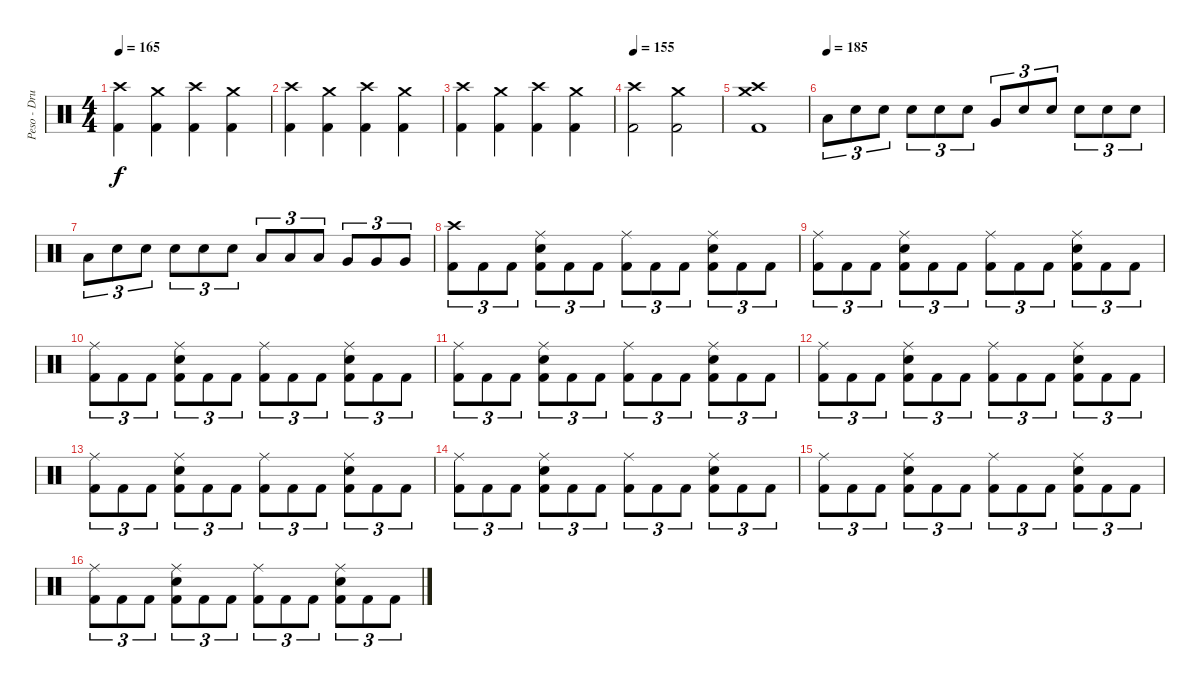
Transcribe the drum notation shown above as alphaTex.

\track ("Peso - Drums" "Peso - Dru") {instrument percussion}
\staff {score}
\articulation defaults
\ts (4 4)
\tempo 165
\clef neutral
\ks c
("Crash high (hit)" "Kick (hit) 2").4{dy f} ("Crash medium (hit)" "Kick (hit) 2").4 ("Crash high (hit)" "Kick (hit) 2").4 ("Crash medium (hit)" "Kick (hit) 2").4 |
("Crash high (hit)" "Kick (hit) 2").4 ("Crash medium (hit)" "Kick (hit) 2").4 ("Crash high (hit)" "Kick (hit) 2").4 ("Crash medium (hit)" "Kick (hit) 2").4 |
("Crash high (hit)" "Kick (hit) 2").4 ("Crash medium (hit)" "Kick (hit) 2").4 ("Crash high (hit)" "Kick (hit) 2").4 ("Crash medium (hit)" "Kick (hit) 2").4 |
\tempo 155
("Crash high (hit)" "Kick (hit) 2").2 ("Crash medium (hit)" "Kick (hit) 2").2 |
("Crash medium (hit)" "Crash high (hit)" "Kick (hit) 2").1 |
\tempo (185)
"Low Tom (hit)".8{tu (3 2)} "Electric Snare (hit)".8{tu (3 2)} "Electric Snare (hit)".8{tu (3 2)} "Electric Snare (hit)".8{tu (3 2)} "Electric Snare (hit)".8{tu (3 2)} "Electric Snare (hit)".8{tu (3 2)} "Very Low Tom (hit)".8{tu (3 2)} "Electric Snare (hit)".8{tu (3 2)} "Electric Snare (hit)".8{tu (3 2)} "Electric Snare (hit)".8{tu (3 2)} "Electric Snare (hit)".8{tu (3 2)} "Electric Snare (hit)".8{tu (3 2)} |
"Low Tom (hit)".8{tu (3 2)} "Electric Snare (hit)".8{tu (3 2)} "Electric Snare (hit)".8{tu (3 2)} "Electric Snare (hit)".8{tu (3 2)} "Electric Snare (hit)".8{tu (3 2)} "Electric Snare (hit)".8{tu (3 2)} "Low Tom (hit)".8{tu (3 2)} "Low Tom (hit)".8{tu (3 2)} "Low Tom (hit)".8{tu (3 2)} "Very Low Tom (hit)".8{tu (3 2)} "Very Low Tom (hit)".8{tu (3 2)} "Very Low Tom (hit)".8{tu (3 2)} |
("Crash high (hit)" "Kick (hit) 2").8{tu (3 2)} "Kick (hit) 2".8{tu (3 2)} "Kick (hit) 2".8{tu (3 2)} ("Ride (middle)" "Electric Snare (hit)" "Kick (hit) 2").8{tu (3 2)} "Kick (hit) 2".8{tu (3 2)} "Kick (hit) 2".8{tu (3 2)} ("Ride (middle)" "Kick (hit) 2").8{tu (3 2)} "Kick (hit) 2".8{tu (3 2)} "Kick (hit) 2".8{tu (3 2)} ("Ride (middle)" "Electric Snare (hit)" "Kick (hit) 2").8{tu (3 2)} "Kick (hit) 2".8{tu (3 2)} "Kick (hit) 2".8{tu (3 2)} |
("Ride (middle)" "Kick (hit) 2").8{tu (3 2)} "Kick (hit) 2".8{tu (3 2)} "Kick (hit) 2".8{tu (3 2)} ("Ride (middle)" "Electric Snare (hit)" "Kick (hit) 2").8{tu (3 2)} "Kick (hit) 2".8{tu (3 2)} "Kick (hit) 2".8{tu (3 2)} ("Ride (middle)" "Kick (hit) 2").8{tu (3 2)} "Kick (hit) 2".8{tu (3 2)} "Kick (hit) 2".8{tu (3 2)} ("Ride (middle)" "Electric Snare (hit)" "Kick (hit) 2").8{tu (3 2)} "Kick (hit) 2".8{tu (3 2)} "Kick (hit) 2".8{tu (3 2)} |
("Ride (middle)" "Kick (hit) 2").8{tu (3 2)} "Kick (hit) 2".8{tu (3 2)} "Kick (hit) 2".8{tu (3 2)} ("Ride (middle)" "Electric Snare (hit)" "Kick (hit) 2").8{tu (3 2)} "Kick (hit) 2".8{tu (3 2)} "Kick (hit) 2".8{tu (3 2)} ("Ride (middle)" "Kick (hit) 2").8{tu (3 2)} "Kick (hit) 2".8{tu (3 2)} "Kick (hit) 2".8{tu (3 2)} ("Ride (middle)" "Electric Snare (hit)" "Kick (hit) 2").8{tu (3 2)} "Kick (hit) 2".8{tu (3 2)} "Kick (hit) 2".8{tu (3 2)} |
("Ride (middle)" "Kick (hit) 2").8{tu (3 2)} "Kick (hit) 2".8{tu (3 2)} "Kick (hit) 2".8{tu (3 2)} ("Ride (middle)" "Electric Snare (hit)" "Kick (hit) 2").8{tu (3 2)} "Kick (hit) 2".8{tu (3 2)} "Kick (hit) 2".8{tu (3 2)} ("Ride (middle)" "Kick (hit) 2").8{tu (3 2)} "Kick (hit) 2".8{tu (3 2)} "Kick (hit) 2".8{tu (3 2)} ("Ride (middle)" "Electric Snare (hit)" "Kick (hit) 2").8{tu (3 2)} "Kick (hit) 2".8{tu (3 2)} "Kick (hit) 2".8{tu (3 2)} |
("Ride (middle)" "Kick (hit) 2").8{tu (3 2)} "Kick (hit) 2".8{tu (3 2)} "Kick (hit) 2".8{tu (3 2)} ("Ride (middle)" "Electric Snare (hit)" "Kick (hit) 2").8{tu (3 2)} "Kick (hit) 2".8{tu (3 2)} "Kick (hit) 2".8{tu (3 2)} ("Ride (middle)" "Kick (hit) 2").8{tu (3 2)} "Kick (hit) 2".8{tu (3 2)} "Kick (hit) 2".8{tu (3 2)} ("Ride (middle)" "Electric Snare (hit)" "Kick (hit) 2").8{tu (3 2)} "Kick (hit) 2".8{tu (3 2)} "Kick (hit) 2".8{tu (3 2)} |
("Ride (middle)" "Kick (hit) 2").8{tu (3 2)} "Kick (hit) 2".8{tu (3 2)} "Kick (hit) 2".8{tu (3 2)} ("Ride (middle)" "Electric Snare (hit)" "Kick (hit) 2").8{tu (3 2)} "Kick (hit) 2".8{tu (3 2)} "Kick (hit) 2".8{tu (3 2)} ("Ride (middle)" "Kick (hit) 2").8{tu (3 2)} "Kick (hit) 2".8{tu (3 2)} "Kick (hit) 2".8{tu (3 2)} ("Ride (middle)" "Electric Snare (hit)" "Kick (hit) 2").8{tu (3 2)} "Kick (hit) 2".8{tu (3 2)} "Kick (hit) 2".8{tu (3 2)} |
("Ride (middle)" "Kick (hit) 2").8{tu (3 2)} "Kick (hit) 2".8{tu (3 2)} "Kick (hit) 2".8{tu (3 2)} ("Ride (middle)" "Electric Snare (hit)" "Kick (hit) 2").8{tu (3 2)} "Kick (hit) 2".8{tu (3 2)} "Kick (hit) 2".8{tu (3 2)} ("Ride (middle)" "Kick (hit) 2").8{tu (3 2)} "Kick (hit) 2".8{tu (3 2)} "Kick (hit) 2".8{tu (3 2)} ("Ride (middle)" "Electric Snare (hit)" "Kick (hit) 2").8{tu (3 2)} "Kick (hit) 2".8{tu (3 2)} "Kick (hit) 2".8{tu (3 2)} |
("Ride (middle)" "Kick (hit) 2").8{tu (3 2)} "Kick (hit) 2".8{tu (3 2)} "Kick (hit) 2".8{tu (3 2)} ("Ride (middle)" "Electric Snare (hit)" "Kick (hit) 2").8{tu (3 2)} "Kick (hit) 2".8{tu (3 2)} "Kick (hit) 2".8{tu (3 2)} ("Ride (middle)" "Kick (hit) 2").8{tu (3 2)} "Kick (hit) 2".8{tu (3 2)} "Kick (hit) 2".8{tu (3 2)} ("Ride (middle)" "Electric Snare (hit)" "Kick (hit) 2").8{tu (3 2)} "Kick (hit) 2".8{tu (3 2)} "Kick (hit) 2".8{tu (3 2)} |
("Ride (middle)" "Kick (hit) 2").8{tu (3 2)} "Kick (hit) 2".8{tu (3 2)} "Kick (hit) 2".8{tu (3 2)} ("Ride (middle)" "Electric Snare (hit)" "Kick (hit) 2").8{tu (3 2)} "Kick (hit) 2".8{tu (3 2)} "Kick (hit) 2".8{tu (3 2)} ("Ride (middle)" "Kick (hit) 2").8{tu (3 2)} "Kick (hit) 2".8{tu (3 2)} "Kick (hit) 2".8{tu (3 2)} ("Ride (middle)" "Electric Snare (hit)" "Kick (hit) 2").8{tu (3 2)} "Kick (hit) 2".8{tu (3 2)} "Kick (hit) 2".8{tu (3 2)}
